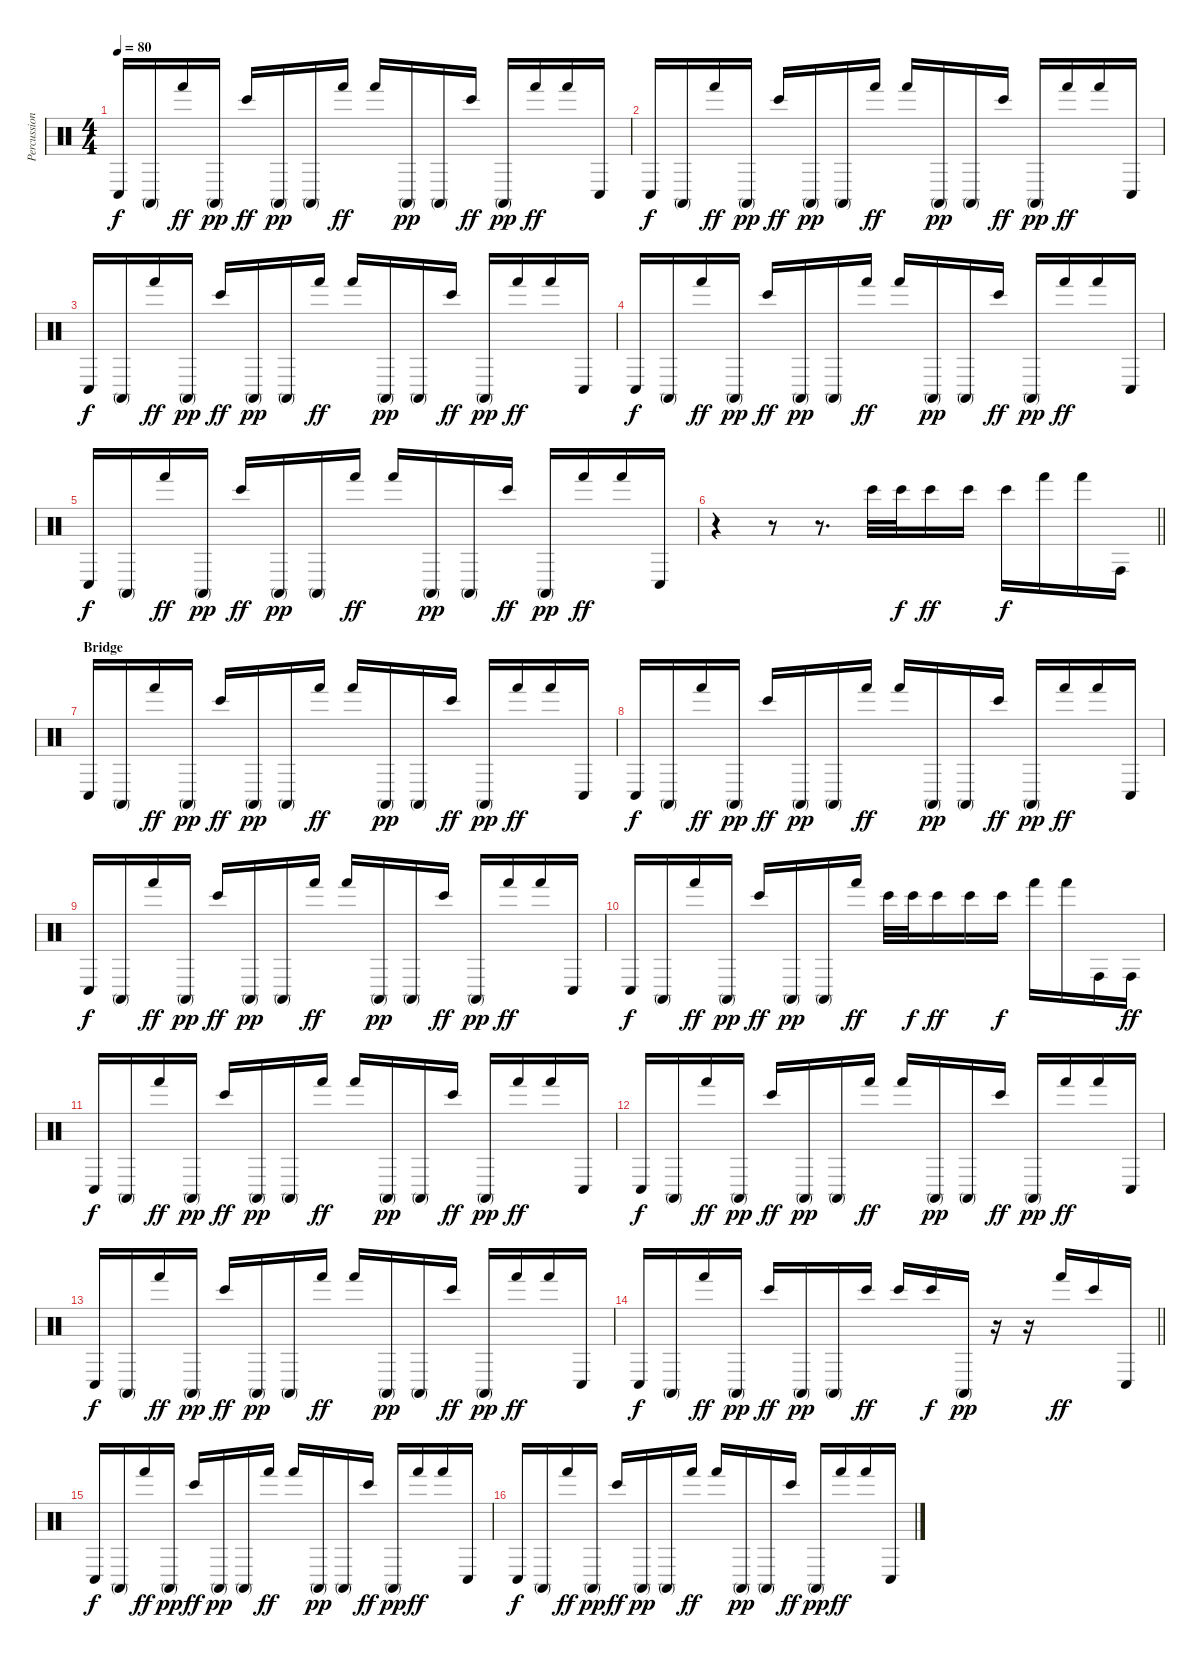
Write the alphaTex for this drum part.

\track ("Percussions" "Percussion") {instrument percussion}
\staff {score}
\articulation defaults
\ts (4 4)
\tempo 80
\clef neutral
\ks c "Conga low (hit)".16{dy f} "Conga high (mute)".16 "Hand (hit)".16{dy ff} "Conga high (mute)".16{dy pp} "Bongo High (hit)".16{dy ff} "Conga high (mute)".16{dy pp} "Conga high (mute)".16 "Hand (hit)".16{dy ff} "Hand (hit)".16 "Conga high (mute)".16{dy pp} "Conga high (mute)".16 "Bongo High (hit)".16{dy ff} "Conga high (mute)".16{dy pp} "Hand (hit)".16{dy ff} "Hand (hit)".16 "Conga low (hit)".16
|
"Conga low (hit)".16{dy f} "Conga high (mute)".16 "Hand (hit)".16{dy ff} "Conga high (mute)".16{dy pp} "Bongo High (hit)".16{dy ff} "Conga high (mute)".16{dy pp} "Conga high (mute)".16 "Hand (hit)".16{dy ff} "Hand (hit)".16 "Conga high (mute)".16{dy pp} "Conga high (mute)".16 "Bongo High (hit)".16{dy ff} "Conga high (mute)".16{dy pp} "Hand (hit)".16{dy ff} "Hand (hit)".16 "Conga low (hit)".16 |
"Conga low (hit)".16{dy f} "Conga high (mute)".16 "Hand (hit)".16{dy ff} "Conga high (mute)".16{dy pp} "Bongo High (hit)".16{dy ff} "Conga high (mute)".16{dy pp} "Conga high (mute)".16 "Hand (hit)".16{dy ff} "Hand (hit)".16 "Conga high (mute)".16{dy pp} "Conga high (mute)".16 "Bongo High (hit)".16{dy ff} "Conga high (mute)".16{dy pp} "Hand (hit)".16{dy ff} "Hand (hit)".16 "Conga low (hit)".16 |
"Conga low (hit)".16{dy f} "Conga high (mute)".16 "Hand (hit)".16{dy ff} "Conga high (mute)".16{dy pp} "Bongo High (hit)".16{dy ff} "Conga high (mute)".16{dy pp} "Conga high (mute)".16 "Hand (hit)".16{dy ff} "Hand (hit)".16 "Conga high (mute)".16{dy pp} "Conga high (mute)".16 "Bongo High (hit)".16{dy ff} "Conga high (mute)".16{dy pp} "Hand (hit)".16{dy ff} "Hand (hit)".16 "Conga low (hit)".16 |
"Conga low (hit)".16{dy f} "Conga high (mute)".16 "Hand (hit)".16{dy ff} "Conga high (mute)".16{dy pp} "Bongo High (hit)".16{dy ff} "Conga high (mute)".16{dy pp} "Conga high (mute)".16 "Hand (hit)".16{dy ff} "Hand (hit)".16 "Conga high (mute)".16{dy pp} "Conga high (mute)".16 "Bongo High (hit)".16{dy ff} "Conga high (mute)".16{dy pp} "Hand (hit)".16{dy ff} "Hand (hit)".16 "Conga low (hit)".16 |
\barLineRight lightlight
r.4 r.8 r.8{d} "Bongo High (hit)".32 "Bongo High (hit)".32{dy f} "Bongo High (hit)".16{dy ff} "Bongo High (hit)".16 "Bongo High (hit)".16{dy f} "Hand (hit)".16 "Hand (hit)".16 "Conga high (hit)".16 |
\section ("" "Bridge")
"Conga low (hit)".16 "Conga high (mute)".16 "Hand (hit)".16{dy ff} "Conga high (mute)".16{dy pp} "Bongo High (hit)".16{dy ff} "Conga high (mute)".16{dy pp} "Conga high (mute)".16 "Hand (hit)".16{dy ff} "Hand (hit)".16 "Conga high (mute)".16{dy pp} "Conga high (mute)".16 "Bongo High (hit)".16{dy ff} "Conga high (mute)".16{dy pp} "Hand (hit)".16{dy ff} "Hand (hit)".16 "Conga low (hit)".16 |
"Conga low (hit)".16{dy f} "Conga high (mute)".16 "Hand (hit)".16{dy ff} "Conga high (mute)".16{dy pp} "Bongo High (hit)".16{dy ff} "Conga high (mute)".16{dy pp} "Conga high (mute)".16 "Hand (hit)".16{dy ff} "Hand (hit)".16 "Conga high (mute)".16{dy pp} "Conga high (mute)".16 "Bongo High (hit)".16{dy ff} "Conga high (mute)".16{dy pp} "Hand (hit)".16{dy ff} "Hand (hit)".16 "Conga low (hit)".16 |
"Conga low (hit)".16{dy f} "Conga high (mute)".16 "Hand (hit)".16{dy ff} "Conga high (mute)".16{dy pp} "Bongo High (hit)".16{dy ff} "Conga high (mute)".16{dy pp} "Conga high (mute)".16 "Hand (hit)".16{dy ff} "Hand (hit)".16 "Conga high (mute)".16{dy pp} "Conga high (mute)".16 "Bongo High (hit)".16{dy ff} "Conga high (mute)".16{dy pp} "Hand (hit)".16{dy ff} "Hand (hit)".16 "Conga low (hit)".16 |
"Conga low (hit)".16{dy f} "Conga high (mute)".16 "Hand (hit)".16{dy ff} "Conga high (mute)".16{dy pp} "Bongo High (hit)".16{dy ff} "Conga high (mute)".16{dy pp} "Conga high (mute)".16 "Hand (hit)".16{dy ff} "Bongo High (hit)".32 "Bongo High (hit)".32{dy f} "Bongo High (hit)".16{dy ff} "Bongo High (hit)".16 "Bongo High (hit)".16{dy f} "Hand (hit)".16 "Hand (hit)".16 "Conga high (hit)".16 "Conga high (hit)".16{dy ff} |
"Conga low (hit)".16{dy f} "Conga high (mute)".16 "Hand (hit)".16{dy ff} "Conga high (mute)".16{dy pp} "Bongo High (hit)".16{dy ff} "Conga high (mute)".16{dy pp} "Conga high (mute)".16 "Hand (hit)".16{dy ff} "Hand (hit)".16 "Conga high (mute)".16{dy pp} "Conga high (mute)".16 "Bongo High (hit)".16{dy ff} "Conga high (mute)".16{dy pp} "Hand (hit)".16{dy ff} "Hand (hit)".16 "Conga low (hit)".16 |
"Conga low (hit)".16{dy f} "Conga high (mute)".16 "Hand (hit)".16{dy ff} "Conga high (mute)".16{dy pp} "Bongo High (hit)".16{dy ff} "Conga high (mute)".16{dy pp} "Conga high (mute)".16 "Hand (hit)".16{dy ff} "Hand (hit)".16 "Conga high (mute)".16{dy pp} "Conga high (mute)".16 "Bongo High (hit)".16{dy ff} "Conga high (mute)".16{dy pp} "Hand (hit)".16{dy ff} "Hand (hit)".16 "Conga low (hit)".16 |
"Conga low (hit)".16{dy f} "Conga high (mute)".16 "Hand (hit)".16{dy ff} "Conga high (mute)".16{dy pp} "Bongo High (hit)".16{dy ff} "Conga high (mute)".16{dy pp} "Conga high (mute)".16 "Hand (hit)".16{dy ff} "Hand (hit)".16 "Conga high (mute)".16{dy pp} "Conga high (mute)".16 "Bongo High (hit)".16{dy ff} "Conga high (mute)".16{dy pp} "Hand (hit)".16{dy ff} "Hand (hit)".16 "Conga low (hit)".16 |
\barLineRight lightlight "Conga low (hit)".16{dy f} "Conga high (mute)".16 "Hand (hit)".16{dy ff} "Conga high (mute)".16{dy pp} "Bongo High (hit)".16{dy ff} "Conga high (mute)".16{dy pp} "Conga high (mute)".16 "Bongo High (hit)".16{dy ff} "Bongo High (hit)".16 "Bongo High (hit)".16{dy f} "Conga high (mute)".16{dy pp}
r.16 r.16 "Hand (hit)".16{dy ff} "Bongo High (hit)".16 "Conga low (hit)".16 |
"Conga low (hit)".16{dy f} "Conga high (mute)".16 "Hand (hit)".16{dy ff} "Conga high (mute)".16{dy pp} "Bongo High (hit)".16{dy ff} "Conga high (mute)".16{dy pp} "Conga high (mute)".16 "Hand (hit)".16{dy ff} "Hand (hit)".16 "Conga high (mute)".16{dy pp} "Conga high (mute)".16 "Bongo High (hit)".16{dy ff} "Conga high (mute)".16{dy pp} "Hand (hit)".16{dy ff} "Hand (hit)".16 "Conga low (hit)".16 |
"Conga low (hit)".16{dy f} "Conga high (mute)".16 "Hand (hit)".16{dy ff} "Conga high (mute)".16{dy pp} "Bongo High (hit)".16{dy ff} "Conga high (mute)".16{dy pp} "Conga high (mute)".16 "Hand (hit)".16{dy ff} "Hand (hit)".16 "Conga high (mute)".16{dy pp} "Conga high (mute)".16 "Bongo High (hit)".16{dy ff} "Conga high (mute)".16{dy pp} "Hand (hit)".16{dy ff} "Hand (hit)".16 "Conga low (hit)".16
